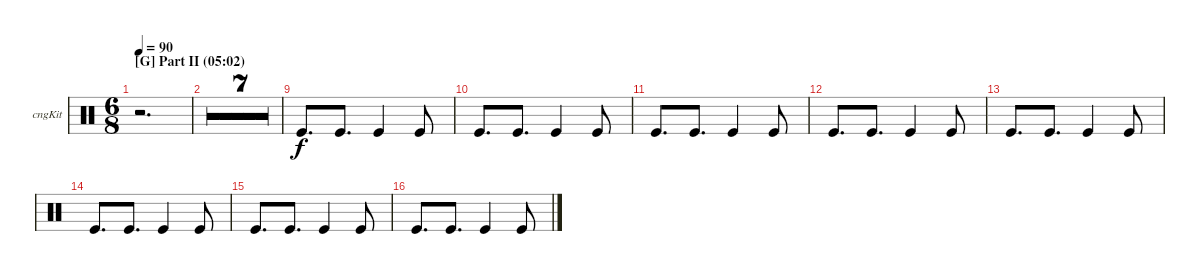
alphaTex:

\defaultSystemsLayout 4
\bracketExtendMode groupsimilarinstruments
\firstSystemTrackNameOrientation horizontal
\otherSystemsTrackNameOrientation horizontal
\track ("Congas" "cngKit") {multiBarRest instrument percussion}
\staff {score}
\articulation defaults
\ts (6 8)
\section ("G" "Part II (05:02)")
\tempo 90
\clef neutral
\ks c
r.2{d dy f} |
r.2{d} |
r.2{d} |
r.2{d} |
r.2{d} |
r.2{d} |
r.2{d} |
r.2{d} |
"Kick (hit)".8{d} "Kick (hit)".8{d} "Kick (hit)".4 "Kick (hit)".8 |
"Kick (hit)".8{d} "Kick (hit)".8{d} "Kick (hit)".4 "Kick (hit)".8 |
"Kick (hit)".8{d} "Kick (hit)".8{d} "Kick (hit)".4 "Kick (hit)".8 |
"Kick (hit)".8{d} "Kick (hit)".8{d} "Kick (hit)".4 "Kick (hit)".8 |
"Kick (hit)".8{d} "Kick (hit)".8{d} "Kick (hit)".4 "Kick (hit)".8 |
"Kick (hit)".8{d} "Kick (hit)".8{d} "Kick (hit)".4 "Kick (hit)".8 |
"Kick (hit)".8{d} "Kick (hit)".8{d} "Kick (hit)".4 "Kick (hit)".8 |
"Kick (hit)".8{d} "Kick (hit)".8{d} "Kick (hit)".4 "Kick (hit)".8
